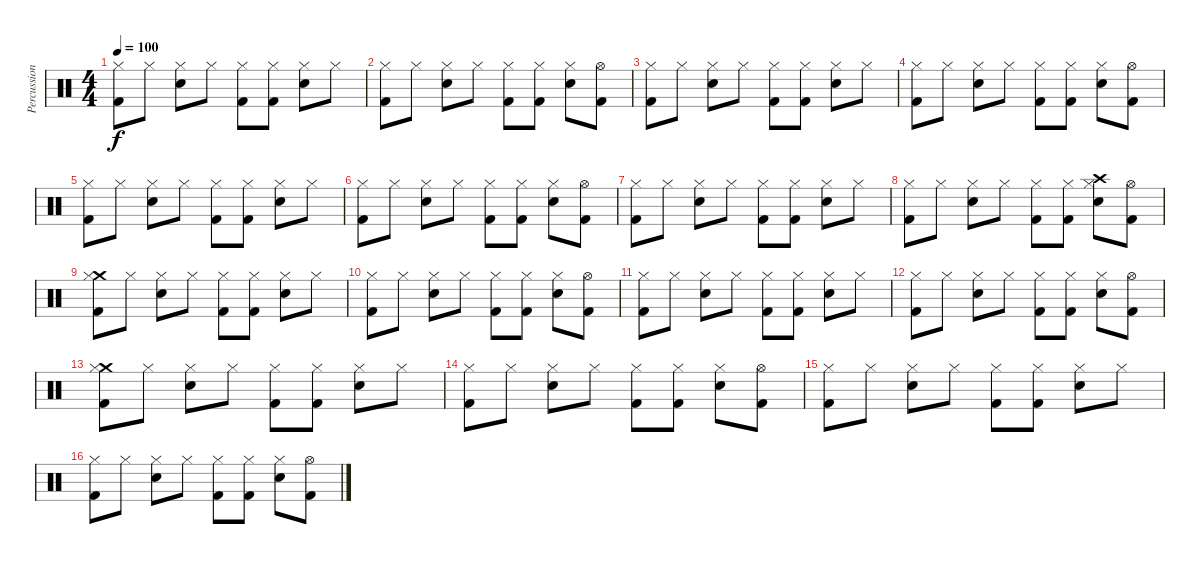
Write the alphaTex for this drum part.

\track ("Percussion" "Percussion") {instrument percussion}
\staff {score}
\articulation defaults
\ts (4 4)
\tempo 100
\clef neutral
\ks c
("Kick (hit) 2" "Hi-Hat (closed)").8{dy f} "Hi-Hat (closed)".8 ("Snare (hit) 2" "Hi-Hat (closed)").8 "Hi-Hat (closed)".8 ("Kick (hit) 2" "Hi-Hat (closed)").8 ("Kick (hit) 2" "Hi-Hat (closed)").8 ("Snare (hit) 2" "Hi-Hat (closed)").8 "Hi-Hat (closed)".8 |
("Kick (hit) 2" "Hi-Hat (closed)").8 "Hi-Hat (closed)".8 ("Snare (hit) 2" "Hi-Hat (closed)").8 "Hi-Hat (closed)".8 ("Kick (hit) 2" "Hi-Hat (closed)").8 ("Kick (hit) 2" "Hi-Hat (closed)").8 ("Snare (hit) 2" "Hi-Hat (closed)").8 ("Kick (hit) 2" "Hi-Hat (open)").8 |
("Kick (hit) 2" "Hi-Hat (closed)").8 "Hi-Hat (closed)".8 ("Snare (hit) 2" "Hi-Hat (closed)").8 "Hi-Hat (closed)".8 ("Kick (hit) 2" "Hi-Hat (closed)").8 ("Kick (hit) 2" "Hi-Hat (closed)").8 ("Snare (hit) 2" "Hi-Hat (closed)").8 "Hi-Hat (closed)".8 |
("Kick (hit) 2" "Hi-Hat (closed)").8 "Hi-Hat (closed)".8 ("Snare (hit) 2" "Hi-Hat (closed)").8 "Hi-Hat (closed)".8 ("Kick (hit) 2" "Hi-Hat (closed)").8 ("Kick (hit) 2" "Hi-Hat (closed)").8 ("Snare (hit) 2" "Hi-Hat (closed)").8 ("Kick (hit) 2" "Hi-Hat (open)").8 |
("Kick (hit) 2" "Hi-Hat (closed)").8 "Hi-Hat (closed)".8 ("Snare (hit) 2" "Hi-Hat (closed)").8 "Hi-Hat (closed)".8 ("Kick (hit) 2" "Hi-Hat (closed)").8 ("Kick (hit) 2" "Hi-Hat (closed)").8 ("Snare (hit) 2" "Hi-Hat (closed)").8 "Hi-Hat (closed)".8 |
("Kick (hit) 2" "Hi-Hat (closed)").8 "Hi-Hat (closed)".8 ("Snare (hit) 2" "Hi-Hat (closed)").8 "Hi-Hat (closed)".8 ("Kick (hit) 2" "Hi-Hat (closed)").8 ("Kick (hit) 2" "Hi-Hat (closed)").8 ("Snare (hit) 2" "Hi-Hat (closed)").8 ("Kick (hit) 2" "Hi-Hat (open)").8 |
("Kick (hit) 2" "Hi-Hat (closed)").8 "Hi-Hat (closed)".8 ("Snare (hit) 2" "Hi-Hat (closed)").8 "Hi-Hat (closed)".8 ("Kick (hit) 2" "Hi-Hat (closed)").8 ("Kick (hit) 2" "Hi-Hat (closed)").8 ("Snare (hit) 2" "Hi-Hat (closed)").8 "Hi-Hat (closed)".8 |
("Kick (hit) 2" "Hi-Hat (closed)").8 "Hi-Hat (closed)".8 ("Snare (hit) 2" "Hi-Hat (closed)").8 "Hi-Hat (closed)".8 ("Kick (hit) 2" "Hi-Hat (closed)").8 ("Kick (hit) 2" "Hi-Hat (closed)").8 ("Crash high (hit)" "Snare (hit) 2" "Hi-Hat (closed)").8 ("Kick (hit) 2" "Hi-Hat (open)").8 |
("Crash medium (hit)" "Kick (hit) 2" "Hi-Hat (closed)").8 "Hi-Hat (closed)".8 ("Snare (hit) 2" "Hi-Hat (closed)").8 "Hi-Hat (closed)".8 ("Kick (hit) 2" "Hi-Hat (closed)").8 ("Kick (hit) 2" "Hi-Hat (closed)").8 ("Snare (hit) 2" "Hi-Hat (closed)").8 "Hi-Hat (closed)".8 |
("Kick (hit) 2" "Hi-Hat (closed)").8 "Hi-Hat (closed)".8 ("Snare (hit) 2" "Hi-Hat (closed)").8 "Hi-Hat (closed)".8 ("Kick (hit) 2" "Hi-Hat (closed)").8 ("Kick (hit) 2" "Hi-Hat (closed)").8 ("Snare (hit) 2" "Hi-Hat (closed)").8 ("Kick (hit) 2" "Hi-Hat (open)").8 |
("Kick (hit) 2" "Hi-Hat (closed)").8 "Hi-Hat (closed)".8 ("Snare (hit) 2" "Hi-Hat (closed)").8 "Hi-Hat (closed)".8 ("Kick (hit) 2" "Hi-Hat (closed)").8 ("Kick (hit) 2" "Hi-Hat (closed)").8 ("Snare (hit) 2" "Hi-Hat (closed)").8 "Hi-Hat (closed)".8 |
("Kick (hit) 2" "Hi-Hat (closed)").8 "Hi-Hat (closed)".8 ("Snare (hit) 2" "Hi-Hat (closed)").8 "Hi-Hat (closed)".8 ("Kick (hit) 2" "Hi-Hat (closed)").8 ("Kick (hit) 2" "Hi-Hat (closed)").8 ("Snare (hit) 2" "Hi-Hat (closed)").8 ("Kick (hit) 2" "Hi-Hat (open)").8 |
("Crash medium (hit)" "Kick (hit) 2" "Hi-Hat (closed)").8 "Hi-Hat (closed)".8 ("Snare (hit) 2" "Hi-Hat (closed)").8 "Hi-Hat (closed)".8 ("Kick (hit) 2" "Hi-Hat (closed)").8 ("Kick (hit) 2" "Hi-Hat (closed)").8 ("Snare (hit) 2" "Hi-Hat (closed)").8 "Hi-Hat (closed)".8 |
("Kick (hit) 2" "Hi-Hat (closed)").8 "Hi-Hat (closed)".8 ("Snare (hit) 2" "Hi-Hat (closed)").8 "Hi-Hat (closed)".8 ("Kick (hit) 2" "Hi-Hat (closed)").8 ("Kick (hit) 2" "Hi-Hat (closed)").8 ("Snare (hit) 2" "Hi-Hat (closed)").8 ("Kick (hit) 2" "Hi-Hat (open)").8 |
("Kick (hit) 2" "Hi-Hat (closed)").8 "Hi-Hat (closed)".8 ("Snare (hit) 2" "Hi-Hat (closed)").8 "Hi-Hat (closed)".8 ("Kick (hit) 2" "Hi-Hat (closed)").8 ("Kick (hit) 2" "Hi-Hat (closed)").8 ("Snare (hit) 2" "Hi-Hat (closed)").8 "Hi-Hat (closed)".8 |
("Kick (hit) 2" "Hi-Hat (closed)").8 "Hi-Hat (closed)".8 ("Snare (hit) 2" "Hi-Hat (closed)").8 "Hi-Hat (closed)".8 ("Kick (hit) 2" "Hi-Hat (closed)").8 ("Kick (hit) 2" "Hi-Hat (closed)").8 ("Snare (hit) 2" "Hi-Hat (closed)").8 ("Kick (hit) 2" "Hi-Hat (open)").8
